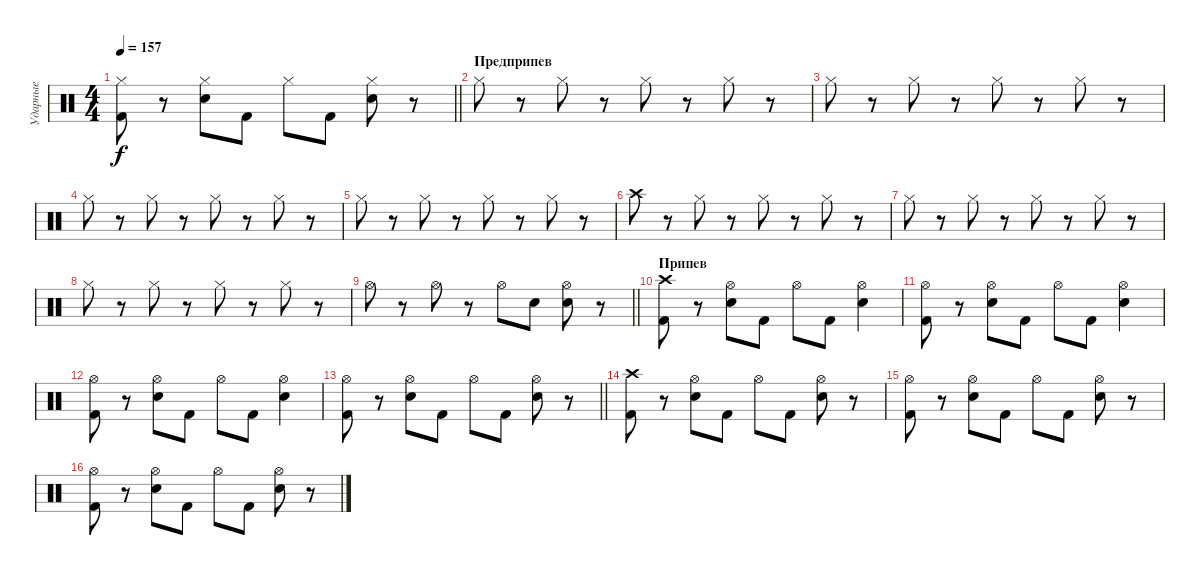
\track ("Ударные" "Ударные") {instrument percussion}
\staff {score}
\articulation defaults
\ts (4 4)
\tempo 157
\clef neutral
\barLineRight lightlight
\ks c
("Hi-Hat (closed)" "Kick (hit) 2").8{dy f} r.8 ("Hi-Hat (closed)" "Snare (hit) 2").8 "Kick (hit) 2".8 "Hi-Hat (closed)".8 "Kick (hit) 2".8 ("Hi-Hat (closed)" "Snare (hit) 2").8 r.8 |
\section ("" "Предприпев")
"Hi-Hat (closed)".8 r.8 "Hi-Hat (closed)".8 r.8 "Hi-Hat (closed)".8 r.8 "Hi-Hat (closed)".8 r.8 |
"Hi-Hat (closed)".8 r.8 "Hi-Hat (closed)".8 r.8 "Hi-Hat (closed)".8 r.8 "Hi-Hat (closed)".8 r.8 |
"Hi-Hat (closed)".8 r.8 "Hi-Hat (closed)".8 r.8 "Hi-Hat (closed)".8 r.8 "Hi-Hat (closed)".8 r.8 |
"Hi-Hat (closed)".8 r.8 "Hi-Hat (closed)".8 r.8 "Hi-Hat (closed)".8 r.8 "Hi-Hat (closed)".8 r.8 |
"Crash high (hit)".8 r.8 "Hi-Hat (closed)".8 r.8 "Hi-Hat (closed)".8 r.8 "Hi-Hat (closed)".8 r.8 |
"Hi-Hat (closed)".8 r.8 "Hi-Hat (closed)".8 r.8 "Hi-Hat (closed)".8 r.8 "Hi-Hat (closed)".8 r.8 |
"Hi-Hat (closed)".8 r.8 "Hi-Hat (closed)".8 r.8 "Hi-Hat (closed)".8 r.8 "Hi-Hat (closed)".8 r.8 |
\barLineRight lightlight "Hi-Hat (open)".8
r.8 "Hi-Hat (open)".8 r.8 "Hi-Hat (open)".8 "Snare (hit) 2".8 ("Hi-Hat (open)" "Snare (hit) 2").8 r.8 |
\section ("" "Припев")
("Crash high (hit)" "Kick (hit) 2").8 r.8 ("Hi-Hat (open)" "Snare (hit) 2").8 "Kick (hit) 2".8 "Hi-Hat (open)".8 "Kick (hit) 2".8 ("Hi-Hat (open)" "Snare (hit) 2").4 |
("Hi-Hat (open)" "Kick (hit) 2").8 r.8 ("Hi-Hat (open)" "Snare (hit) 2").8 "Kick (hit) 2".8 "Hi-Hat (open)".8 "Kick (hit) 2".8 ("Hi-Hat (open)" "Snare (hit) 2").4 |
("Hi-Hat (open)" "Kick (hit) 2").8 r.8 ("Hi-Hat (open)" "Snare (hit) 2").8 "Kick (hit) 2".8 "Hi-Hat (open)".8 "Kick (hit) 2".8 ("Hi-Hat (open)" "Snare (hit) 2").4 |
\barLineRight lightlight
("Hi-Hat (open)" "Kick (hit) 2").8 r.8 ("Hi-Hat (open)" "Snare (hit) 2").8 "Kick (hit) 2".8 "Hi-Hat (open)".8 "Kick (hit) 2".8 ("Hi-Hat (open)" "Snare (hit) 2").8 r.8 |
("Crash high (hit)" "Kick (hit) 2").8 r.8 ("Hi-Hat (open)" "Snare (hit) 2").8 "Kick (hit) 2".8 "Hi-Hat (open)".8 "Kick (hit) 2".8 ("Hi-Hat (open)" "Snare (hit) 2").8 r.8 |
("Hi-Hat (open)" "Kick (hit) 2").8 r.8 ("Hi-Hat (open)" "Snare (hit) 2").8 "Kick (hit) 2".8 "Hi-Hat (open)".8 "Kick (hit) 2".8 ("Hi-Hat (open)" "Snare (hit) 2").8 r.8 |
("Hi-Hat (open)" "Kick (hit) 2").8 r.8 ("Hi-Hat (open)" "Snare (hit) 2").8 "Kick (hit) 2".8 "Hi-Hat (open)".8 "Kick (hit) 2".8 ("Hi-Hat (open)" "Snare (hit) 2").8 r.8
